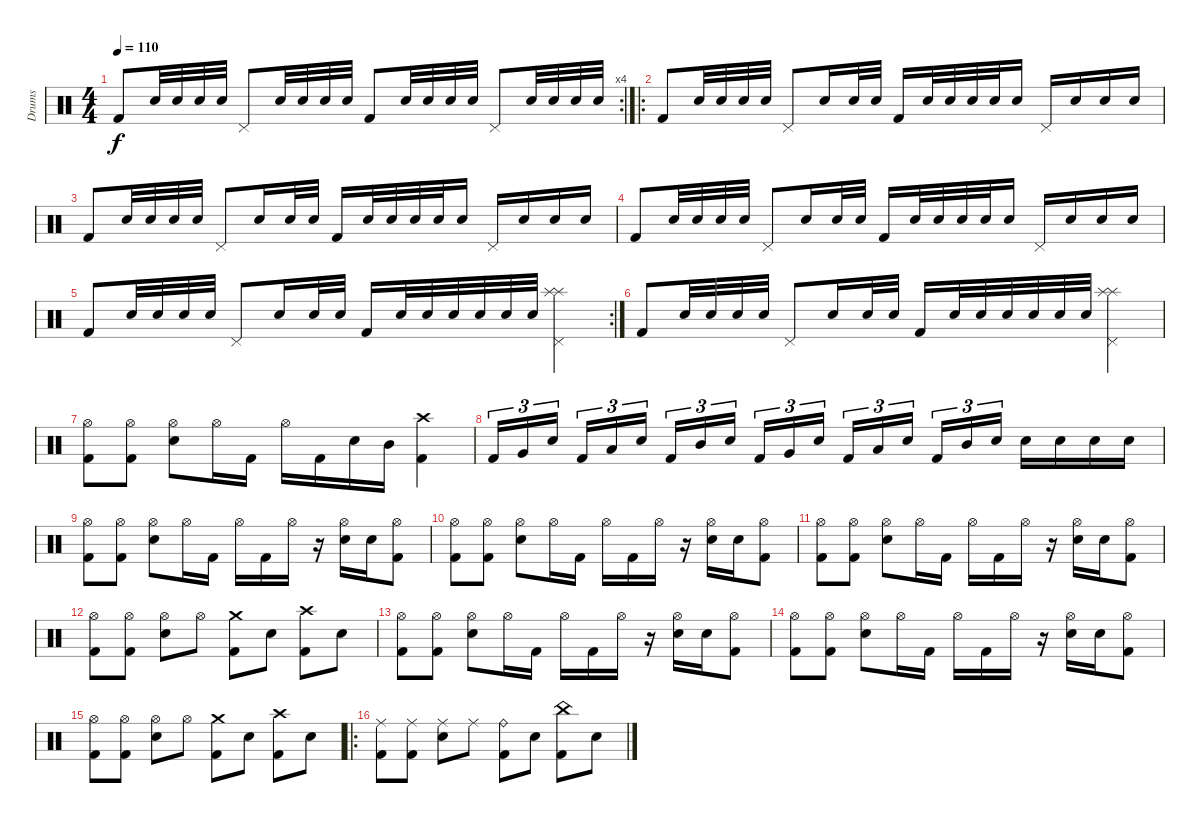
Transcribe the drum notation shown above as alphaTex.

\track ("Drums" "Drums") {instrument percussion}
\staff {score}
\articulation defaults
\rc 4
\ts (4 4)
\tempo 110
\clef neutral
\ks c "Kick (hit) 2".8{dy f} "Snare (hit) 2".32 "Snare (hit) 2".32 "Snare (hit) 2".32 "Snare (hit) 2".32 "Pedal Hi-Hat (hit)".8 "Snare (hit) 2".32 "Snare (hit) 2".32 "Snare (hit) 2".32 "Snare (hit) 2".32 "Kick (hit) 2".8 "Snare (hit) 2".32 "Snare (hit) 2".32 "Snare (hit) 2".32 "Snare (hit) 2".32 "Pedal Hi-Hat (hit)".8 "Snare (hit) 2".32 "Snare (hit) 2".32 "Snare (hit) 2".32 "Snare (hit) 2".32
|
\ro "Kick (hit) 2".8 "Snare (hit) 2".32 "Snare (hit) 2".32 "Snare (hit) 2".32 "Snare (hit) 2".32 "Pedal Hi-Hat (hit)".8 "Snare (hit) 2".16 "Snare (hit) 2".32 "Snare (hit) 2".32 "Kick (hit) 2".16 "Snare (hit) 2".32 "Snare (hit) 2".32 "Snare (hit) 2".32 "Snare (hit) 2".32 "Snare (hit) 2".16 "Pedal Hi-Hat (hit)".16 "Snare (hit) 2".16 "Snare (hit) 2".16 "Snare (hit) 2".16
|
"Kick (hit) 2".8 "Snare (hit) 2".32 "Snare (hit) 2".32 "Snare (hit) 2".32 "Snare (hit) 2".32 "Pedal Hi-Hat (hit)".8 "Snare (hit) 2".16 "Snare (hit) 2".32 "Snare (hit) 2".32 "Kick (hit) 2".16 "Snare (hit) 2".32 "Snare (hit) 2".32 "Snare (hit) 2".32 "Snare (hit) 2".32 "Snare (hit) 2".16 "Pedal Hi-Hat (hit)".16 "Snare (hit) 2".16 "Snare (hit) 2".16 "Snare (hit) 2".16 |
"Kick (hit) 2".8 "Snare (hit) 2".32 "Snare (hit) 2".32 "Snare (hit) 2".32 "Snare (hit) 2".32 "Pedal Hi-Hat (hit)".8 "Snare (hit) 2".16 "Snare (hit) 2".32 "Snare (hit) 2".32 "Kick (hit) 2".16 "Snare (hit) 2".32 "Snare (hit) 2".32 "Snare (hit) 2".32 "Snare (hit) 2".32 "Snare (hit) 2".16 "Pedal Hi-Hat (hit)".16 "Snare (hit) 2".16 "Snare (hit) 2".16 "Snare (hit) 2".16 |
\rc 2 "Kick (hit) 2".8 "Snare (hit) 2".32 "Snare (hit) 2".32 "Snare (hit) 2".32 "Snare (hit) 2".32 "Pedal Hi-Hat (hit)".8 "Snare (hit) 2".16 "Snare (hit) 2".32 "Snare (hit) 2".32 "Kick (hit) 2".16 "Snare (hit) 2".32 "Snare (hit) 2".32 "Snare (hit) 2".32 "Snare (hit) 2".32 "Snare (hit) 2".32 "Snare (hit) 2".32
("Splash (hit)" "Splash (hit)" "Pedal Hi-Hat (hit)").4 |
"Kick (hit) 2".8 "Snare (hit) 2".32 "Snare (hit) 2".32 "Snare (hit) 2".32 "Snare (hit) 2".32 "Pedal Hi-Hat (hit)".8 "Snare (hit) 2".16 "Snare (hit) 2".32 "Snare (hit) 2".32 "Kick (hit) 2".16 "Snare (hit) 2".32 "Snare (hit) 2".32 "Snare (hit) 2".32 "Snare (hit) 2".32 "Snare (hit) 2".32 "Snare (hit) 2".32 ("Splash (hit)" "Splash (hit)" "Pedal Hi-Hat (hit)").4 |
("Hi-Hat (open)" "Kick (hit) 2").8 ("Hi-Hat (open)" "Kick (hit) 2").8 ("Hi-Hat (open)" "Snare (hit) 2").8 "Hi-Hat (open)".16 "Kick (hit) 2".16 "Hi-Hat (open)".16 "Kick (hit) 2".16 "Snare (hit) 2".16 "Mid Tom (hit)".16 ("Crash high (hit)" "Kick (hit) 2").4 |
"Kick (hit) 2".16{tu (3 2)} "Very Low Tom (hit)".16{tu (3 2)} "Snare (hit) 2".16{tu (3 2)} "Kick (hit) 2".16{tu (3 2)} "Low Tom (hit)".16{tu (3 2)} "Snare (hit) 2".16{tu (3 2)} "Kick (hit) 2".16{tu (3 2)} "Mid Tom (hit)".16{tu (3 2)} "Snare (hit) 2".16{tu (3 2)} "Kick (hit) 2".16{tu (3 2)} "Very Low Tom (hit)".16{tu (3 2)} "Snare (hit) 2".16{tu (3 2)} "Kick (hit) 2".16{tu (3 2)} "Low Tom (hit)".16{tu (3 2)} "Snare (hit) 2".16{tu (3 2)} "Kick (hit) 2".16{tu (3 2)} "Mid Tom (hit)".16{tu (3 2)} "Snare (hit) 2".16{tu (3 2)} "Snare (hit) 2".16 "Snare (hit) 2".16 "Snare (hit) 2".16 "Snare (hit) 2".16 |
("Hi-Hat (open)" "Kick (hit) 2").8 ("Hi-Hat (open)" "Kick (hit) 2").8 ("Hi-Hat (open)" "Snare (hit) 2").8 "Hi-Hat (open)".16 "Kick (hit) 2".16 "Hi-Hat (open)".16 "Kick (hit) 2".16 "Hi-Hat (open)".16 r.16 ("Hi-Hat (open)" "Snare (hit) 2").16 "Snare (hit) 2".16 ("Hi-Hat (open)" "Kick (hit) 2").8 |
("Hi-Hat (open)" "Kick (hit) 2").8 ("Hi-Hat (open)" "Kick (hit) 2").8 ("Hi-Hat (open)" "Snare (hit) 2").8 "Hi-Hat (open)".16 "Kick (hit) 2".16 "Hi-Hat (open)".16 "Kick (hit) 2".16 "Hi-Hat (open)".16 r.16 ("Hi-Hat (open)" "Snare (hit) 2").16 "Snare (hit) 2".16 ("Hi-Hat (open)" "Kick (hit) 2").8 |
("Hi-Hat (open)" "Kick (hit) 2").8 ("Hi-Hat (open)" "Kick (hit) 2").8 ("Hi-Hat (open)" "Snare (hit) 2").8 "Hi-Hat (open)".16 "Kick (hit) 2".16 "Hi-Hat (open)".16 "Kick (hit) 2".16 "Hi-Hat (open)".16 r.16 ("Hi-Hat (open)" "Snare (hit) 2").16 "Snare (hit) 2".16 ("Hi-Hat (open)" "Kick (hit) 2").8 |
("Hi-Hat (open)" "Kick (hit) 2").8 ("Hi-Hat (open)" "Kick (hit) 2").8 ("Hi-Hat (open)" "Snare (hit) 2").8 "Hi-Hat (open)".8 ("Crash medium (hit)" "Kick (hit) 2").8 "Snare (hit) 2".8 ("Crash high (hit)" "Kick (hit) 2").8 "Snare (hit) 2".8 |
("Hi-Hat (open)" "Kick (hit) 2").8 ("Hi-Hat (open)" "Kick (hit) 2").8 ("Hi-Hat (open)" "Snare (hit) 2").8 "Hi-Hat (open)".16 "Kick (hit) 2".16 "Hi-Hat (open)".16 "Kick (hit) 2".16 "Hi-Hat (open)".16 r.16 ("Hi-Hat (open)" "Snare (hit) 2").16 "Snare (hit) 2".16 ("Hi-Hat (open)" "Kick (hit) 2").8 |
("Hi-Hat (open)" "Kick (hit) 2").8 ("Hi-Hat (open)" "Kick (hit) 2").8 ("Hi-Hat (open)" "Snare (hit) 2").8 "Hi-Hat (open)".16 "Kick (hit) 2".16 "Hi-Hat (open)".16 "Kick (hit) 2".16 "Hi-Hat (open)".16 r.16 ("Hi-Hat (open)" "Snare (hit) 2").16 "Snare (hit) 2".16 ("Hi-Hat (open)" "Kick (hit) 2").8 |
("Hi-Hat (open)" "Kick (hit) 2").8 ("Hi-Hat (open)" "Kick (hit) 2").8 ("Hi-Hat (open)" "Snare (hit) 2").8 "Hi-Hat (open)".8 ("Crash medium (hit)" "Kick (hit) 2").8 "Snare (hit) 2".8 ("Crash high (hit)" "Kick (hit) 2").8 "Snare (hit) 2".8 |
\ro
("Ride (middle)" "Kick (hit) 2").8 ("Ride (middle)" "Kick (hit) 2").8 ("Ride (middle)" "Snare (hit) 2").8 "Ride (middle)".8 ("Ride (bell)" "Kick (hit) 2").8 "Snare (hit) 2".8 ("China (hit)" "Kick (hit) 2").8 "Snare (hit) 2".8
